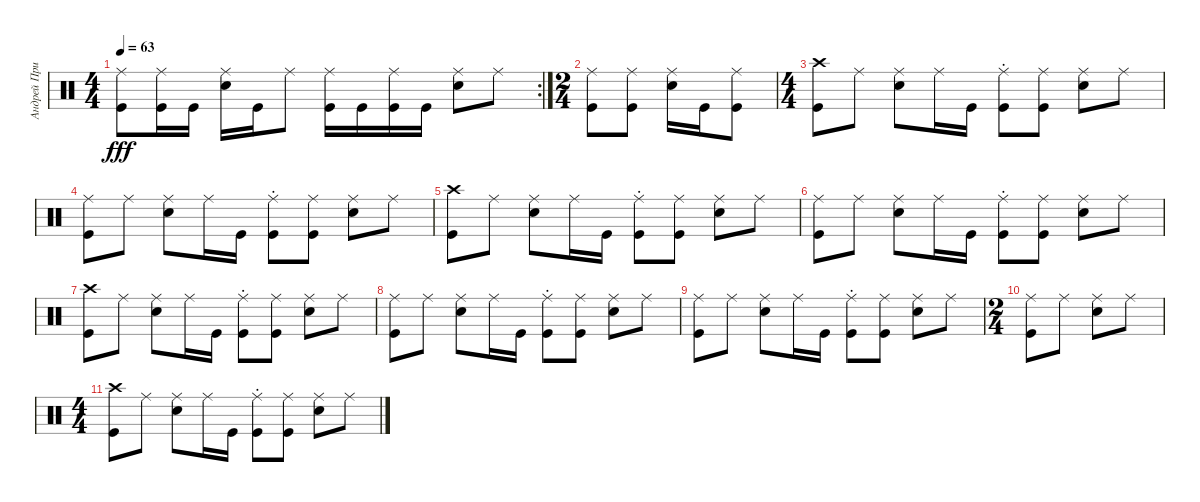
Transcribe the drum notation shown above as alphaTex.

\track ("Андрей Приставка" "Андрей При") {instrument percussion}
\staff {score}
\articulation defaults
\rc 2
\ts (4 4)
\tempo 63
\clef neutral
\ks c
("Kick (hit)" "Ride (middle)").8{dy fff} ("Kick (hit)" "Ride (middle)").16 "Kick (hit)".16 ("Ride (middle)" "Snare (hit) 2").16 "Kick (hit)".16 "Ride (middle)".8 ("Kick (hit)" "Ride (middle)").16 "Kick (hit)".16 ("Kick (hit)" "Ride (middle)").16 "Kick (hit)".16 ("Snare (hit) 2" "Ride (middle)").8 "Ride (middle)".8 |
\ts (2 4)
("Kick (hit)" "Ride (middle)").8 ("Ride (middle)" "Kick (hit)").8 ("Snare (hit) 2" "Ride (middle)").16 "Kick (hit)".16 ("Kick (hit)" "Ride (middle)").8 |
\ts (4 4)
("Kick (hit)" "Crash high (hit)").8 "Ride (middle)".8 ("Ride (middle)" "Snare (hit) 2").8 "Ride (middle)".16 "Kick (hit)".16 ("Kick (hit)"{st} "Ride (middle)"{st}).8 ("Ride (middle)" "Kick (hit)").8 ("Snare (hit) 2" "Ride (middle)").8 "Ride (middle)".8 |
("Kick (hit)" "Ride (middle)").8 "Ride (middle)".8 ("Ride (middle)" "Snare (hit) 2").8 "Ride (middle)".16 "Kick (hit)".16 ("Kick (hit)"{st} "Ride (middle)"{st}).8 ("Ride (middle)" "Kick (hit)").8 ("Snare (hit) 2" "Ride (middle)").8 "Ride (middle)".8 |
("Kick (hit)" "Crash high (hit)").8 "Ride (middle)".8 ("Ride (middle)" "Snare (hit) 2").8 "Ride (middle)".16 "Kick (hit)".16 ("Kick (hit)"{st} "Ride (middle)"{st}).8 ("Ride (middle)" "Kick (hit)").8 ("Snare (hit) 2" "Ride (middle)").8 "Ride (middle)".8 |
("Kick (hit)" "Ride (middle)").8 "Ride (middle)".8 ("Ride (middle)" "Snare (hit) 2").8 "Ride (middle)".16 "Kick (hit)".16 ("Kick (hit)"{st} "Ride (middle)"{st}).8 ("Ride (middle)" "Kick (hit)").8 ("Snare (hit) 2" "Ride (middle)").8 "Ride (middle)".8 |
("Kick (hit)" "Crash high (hit)").8 "Ride (middle)".8 ("Ride (middle)" "Snare (hit) 2").8 "Ride (middle)".16 "Kick (hit)".16 ("Kick (hit)"{st} "Ride (middle)"{st}).8 ("Ride (middle)" "Kick (hit)").8 ("Snare (hit) 2" "Ride (middle)").8 "Ride (middle)".8 |
("Kick (hit)" "Ride (middle)").8 "Ride (middle)".8 ("Ride (middle)" "Snare (hit) 2").8 "Ride (middle)".16 "Kick (hit)".16 ("Kick (hit)"{st} "Ride (middle)"{st}).8 ("Ride (middle)" "Kick (hit)").8 ("Snare (hit) 2" "Ride (middle)").8 "Ride (middle)".8 |
("Kick (hit)" "Ride (middle)").8 "Ride (middle)".8 ("Ride (middle)" "Snare (hit) 2").8 "Ride (middle)".16 "Kick (hit)".16 ("Kick (hit)"{st} "Ride (middle)"{st}).8 ("Ride (middle)" "Kick (hit)").8 ("Snare (hit) 2" "Ride (middle)").8 "Ride (middle)".8 |
\ts (2 4)
("Kick (hit)" "Ride (middle)").8 "Ride (middle)".8 ("Ride (middle)" "Snare (hit) 2").8 "Ride (middle)".8 |
\ts (4 4)
("Kick (hit)" "Crash high (hit)").8 "Ride (middle)".8 ("Ride (middle)" "Snare (hit) 2").8 "Ride (middle)".16 "Kick (hit)".16 ("Kick (hit)"{st} "Ride (middle)"{st}).8 ("Ride (middle)" "Kick (hit)").8 ("Snare (hit) 2" "Ride (middle)").8 "Ride (middle)".8
